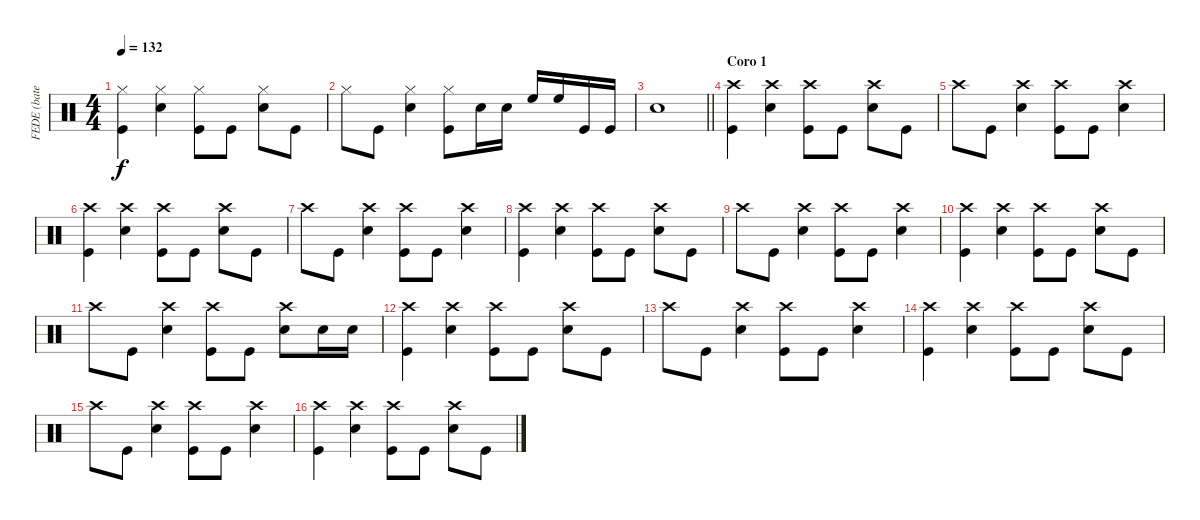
\track ("FEDE (bateria)" "FEDE (bate") {instrument percussion}
\staff {score}
\articulation defaults
\ts (4 4)
\tempo 132
\clef neutral
\ks c
("Hi-Hat (closed)" "Kick (hit)").4{dy f} ("Hi-Hat (closed)" "Snare (hit) 2").4 ("Hi-Hat (closed)" "Kick (hit)").8 "Kick (hit)".8 ("Hi-Hat (closed)" "Snare (hit) 2").8 "Kick (hit)".8 |
"Hi-Hat (closed)".8 "Kick (hit)".8 ("Hi-Hat (closed)" "Snare (hit) 2").4 ("Hi-Hat (closed)" "Kick (hit)").8 "Snare (hit) 2".16 "Snare (hit) 2".16 "High Floor Tom (hit)".16 "High Floor Tom (hit)".16 "Kick (hit)".16 "Kick (hit)".16 |
\barLineRight lightlight "Snare (hit) 2".1
|
\section ("" "Coro 1")
("Crash high (hit)" "Kick (hit)").4 ("Crash high (hit)" "Snare (hit) 2").4 ("Crash high (hit)" "Kick (hit)").8 "Kick (hit)".8 ("Crash high (hit)" "Snare (hit) 2").8 "Kick (hit)".8 |
"Crash high (hit)".8 "Kick (hit)".8 ("Crash high (hit)" "Snare (hit) 2").4 ("Crash high (hit)" "Kick (hit)").8 "Kick (hit)".8 ("Crash high (hit)" "Snare (hit) 2").4 |
("Crash high (hit)" "Kick (hit)").4 ("Crash high (hit)" "Snare (hit) 2").4 ("Crash high (hit)" "Kick (hit)").8 "Kick (hit)".8 ("Crash high (hit)" "Snare (hit) 2").8 "Kick (hit)".8 |
"Crash high (hit)".8 "Kick (hit)".8 ("Crash high (hit)" "Snare (hit) 2").4 ("Crash high (hit)" "Kick (hit)").8 "Kick (hit)".8 ("Crash high (hit)" "Snare (hit) 2").4 |
("Crash high (hit)" "Kick (hit)").4 ("Crash high (hit)" "Snare (hit) 2").4 ("Crash high (hit)" "Kick (hit)").8 "Kick (hit)".8 ("Crash high (hit)" "Snare (hit) 2").8 "Kick (hit)".8 |
"Crash high (hit)".8 "Kick (hit)".8 ("Crash high (hit)" "Snare (hit) 2").4 ("Crash high (hit)" "Kick (hit)").8 "Kick (hit)".8 ("Crash high (hit)" "Snare (hit) 2").4 |
("Crash high (hit)" "Kick (hit)").4 ("Crash high (hit)" "Snare (hit) 2").4 ("Crash high (hit)" "Kick (hit)").8 "Kick (hit)".8 ("Crash high (hit)" "Snare (hit) 2").8 "Kick (hit)".8 |
"Crash high (hit)".8 "Kick (hit)".8 ("Crash high (hit)" "Snare (hit) 2").4 ("Crash high (hit)" "Kick (hit)").8 "Kick (hit)".8 ("Crash high (hit)" "Snare (hit) 2").8 "Snare (hit) 2".16 "Snare (hit) 2".16 |
("Crash high (hit)" "Kick (hit)").4 ("Crash high (hit)" "Snare (hit) 2").4 ("Crash high (hit)" "Kick (hit)").8 "Kick (hit)".8 ("Crash high (hit)" "Snare (hit) 2").8 "Kick (hit)".8 |
"Crash high (hit)".8 "Kick (hit)".8 ("Crash high (hit)" "Snare (hit) 2").4 ("Crash high (hit)" "Kick (hit)").8 "Kick (hit)".8 ("Crash high (hit)" "Snare (hit) 2").4 |
("Crash high (hit)" "Kick (hit)").4 ("Crash high (hit)" "Snare (hit) 2").4 ("Crash high (hit)" "Kick (hit)").8 "Kick (hit)".8 ("Crash high (hit)" "Snare (hit) 2").8 "Kick (hit)".8 |
"Crash high (hit)".8 "Kick (hit)".8 ("Crash high (hit)" "Snare (hit) 2").4 ("Crash high (hit)" "Kick (hit)").8 "Kick (hit)".8 ("Crash high (hit)" "Snare (hit) 2").4 |
("Crash high (hit)" "Kick (hit)").4 ("Crash high (hit)" "Snare (hit) 2").4 ("Crash high (hit)" "Kick (hit)").8 "Kick (hit)".8 ("Crash high (hit)" "Snare (hit) 2").8 "Kick (hit)".8
